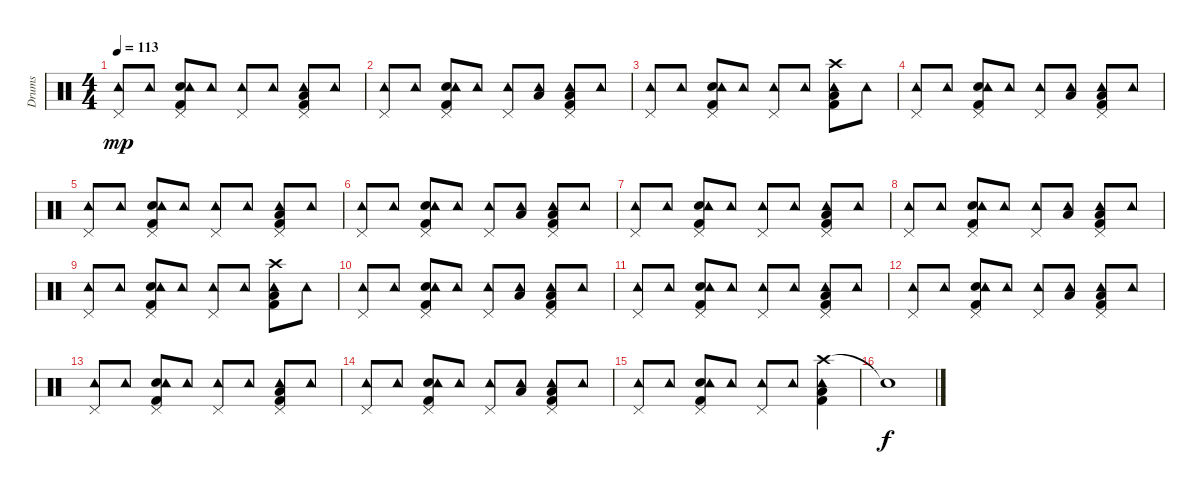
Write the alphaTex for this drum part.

\track ("Drums" "Drums") {instrument percussion}
\staff {score}
\articulation defaults
\ts (4 4)
\tempo 113
\clef neutral
\ks c
("Pedal Hi-Hat (hit)" "Tambourine (hit)").8{dy mp} "Tambourine (hit)".8 ("Pedal Hi-Hat (hit)" "Kick (hit) 2" "Electric Snare (hit)" "Tambourine (hit)").8 "Tambourine (hit)".8 ("Pedal Hi-Hat (hit)" "Tambourine (hit)").8 "Tambourine (hit)".8 ("Pedal Hi-Hat (hit)" "Kick (hit) 2" "Low Floor Tom (hit)" "Tambourine (hit)").8 "Tambourine (hit)".8 |
("Pedal Hi-Hat (hit)" "Tambourine (hit)").8 "Tambourine (hit)".8 ("Pedal Hi-Hat (hit)" "Kick (hit) 2" "Electric Snare (hit)" "Tambourine (hit)").8 "Tambourine (hit)".8 ("Pedal Hi-Hat (hit)" "Tambourine (hit)").8 ("Low Floor Tom (hit)" "Tambourine (hit)").8 ("Pedal Hi-Hat (hit)" "Kick (hit) 2" "Low Floor Tom (hit)" "Tambourine (hit)").8 "Tambourine (hit)".8 |
("Pedal Hi-Hat (hit)" "Tambourine (hit)").8 "Tambourine (hit)".8 ("Pedal Hi-Hat (hit)" "Kick (hit) 2" "Electric Snare (hit)" "Tambourine (hit)").8 "Tambourine (hit)".8 ("Pedal Hi-Hat (hit)" "Tambourine (hit)").8 "Tambourine (hit)".8 ("Crash high (hit)" "Kick (hit) 2" "Low Floor Tom (hit)" "Tambourine (hit)").8 "Tambourine (hit)".8 |
("Pedal Hi-Hat (hit)" "Tambourine (hit)").8 "Tambourine (hit)".8 ("Pedal Hi-Hat (hit)" "Kick (hit) 2" "Electric Snare (hit)" "Tambourine (hit)").8 "Tambourine (hit)".8 ("Pedal Hi-Hat (hit)" "Tambourine (hit)").8 ("Low Floor Tom (hit)" "Tambourine (hit)").8 ("Pedal Hi-Hat (hit)" "Kick (hit) 2" "Low Floor Tom (hit)" "Tambourine (hit)").8 "Tambourine (hit)".8 |
("Pedal Hi-Hat (hit)" "Tambourine (hit)").8 "Tambourine (hit)".8 ("Pedal Hi-Hat (hit)" "Kick (hit) 2" "Electric Snare (hit)" "Tambourine (hit)").8 "Tambourine (hit)".8 ("Pedal Hi-Hat (hit)" "Tambourine (hit)").8 "Tambourine (hit)".8 ("Pedal Hi-Hat (hit)" "Kick (hit) 2" "Low Floor Tom (hit)" "Tambourine (hit)").8 "Tambourine (hit)".8 |
("Pedal Hi-Hat (hit)" "Tambourine (hit)").8 "Tambourine (hit)".8 ("Pedal Hi-Hat (hit)" "Kick (hit) 2" "Electric Snare (hit)" "Tambourine (hit)").8 "Tambourine (hit)".8 ("Pedal Hi-Hat (hit)" "Tambourine (hit)").8 ("Low Floor Tom (hit)" "Tambourine (hit)").8 ("Pedal Hi-Hat (hit)" "Kick (hit) 2" "Low Floor Tom (hit)" "Tambourine (hit)").8 "Tambourine (hit)".8 |
("Pedal Hi-Hat (hit)" "Tambourine (hit)").8 "Tambourine (hit)".8 ("Pedal Hi-Hat (hit)" "Kick (hit) 2" "Electric Snare (hit)" "Tambourine (hit)").8 "Tambourine (hit)".8 ("Pedal Hi-Hat (hit)" "Tambourine (hit)").8 "Tambourine (hit)".8 ("Pedal Hi-Hat (hit)" "Kick (hit) 2" "Low Floor Tom (hit)" "Tambourine (hit)").8 "Tambourine (hit)".8 |
("Pedal Hi-Hat (hit)" "Tambourine (hit)").8 "Tambourine (hit)".8 ("Pedal Hi-Hat (hit)" "Kick (hit) 2" "Electric Snare (hit)" "Tambourine (hit)").8 "Tambourine (hit)".8 ("Pedal Hi-Hat (hit)" "Tambourine (hit)").8 ("Low Floor Tom (hit)" "Tambourine (hit)").8 ("Pedal Hi-Hat (hit)" "Kick (hit) 2" "Low Floor Tom (hit)" "Tambourine (hit)").8 "Tambourine (hit)".8 |
("Pedal Hi-Hat (hit)" "Tambourine (hit)").8 "Tambourine (hit)".8 ("Pedal Hi-Hat (hit)" "Kick (hit) 2" "Electric Snare (hit)" "Tambourine (hit)").8 "Tambourine (hit)".8 ("Pedal Hi-Hat (hit)" "Tambourine (hit)").8 "Tambourine (hit)".8 ("Crash high (hit)" "Kick (hit) 2" "Low Floor Tom (hit)" "Tambourine (hit)").8 "Tambourine (hit)".8 |
("Pedal Hi-Hat (hit)" "Tambourine (hit)").8 "Tambourine (hit)".8 ("Pedal Hi-Hat (hit)" "Kick (hit) 2" "Electric Snare (hit)" "Tambourine (hit)").8 "Tambourine (hit)".8 ("Pedal Hi-Hat (hit)" "Tambourine (hit)").8 ("Low Floor Tom (hit)" "Tambourine (hit)").8 ("Pedal Hi-Hat (hit)" "Kick (hit) 2" "Low Floor Tom (hit)" "Tambourine (hit)").8 "Tambourine (hit)".8 |
("Pedal Hi-Hat (hit)" "Tambourine (hit)").8 "Tambourine (hit)".8 ("Pedal Hi-Hat (hit)" "Kick (hit) 2" "Electric Snare (hit)" "Tambourine (hit)").8 "Tambourine (hit)".8 ("Pedal Hi-Hat (hit)" "Tambourine (hit)").8 "Tambourine (hit)".8 ("Pedal Hi-Hat (hit)" "Kick (hit) 2" "Low Floor Tom (hit)" "Tambourine (hit)").8 "Tambourine (hit)".8 |
("Pedal Hi-Hat (hit)" "Tambourine (hit)").8 "Tambourine (hit)".8 ("Pedal Hi-Hat (hit)" "Kick (hit) 2" "Electric Snare (hit)" "Tambourine (hit)").8 "Tambourine (hit)".8 ("Pedal Hi-Hat (hit)" "Tambourine (hit)").8 ("Low Floor Tom (hit)" "Tambourine (hit)").8 ("Pedal Hi-Hat (hit)" "Kick (hit) 2" "Low Floor Tom (hit)" "Tambourine (hit)").8 "Tambourine (hit)".8 |
("Pedal Hi-Hat (hit)" "Tambourine (hit)").8 "Tambourine (hit)".8 ("Pedal Hi-Hat (hit)" "Kick (hit) 2" "Electric Snare (hit)" "Tambourine (hit)").8 "Tambourine (hit)".8 ("Pedal Hi-Hat (hit)" "Tambourine (hit)").8 "Tambourine (hit)".8 ("Pedal Hi-Hat (hit)" "Kick (hit) 2" "Low Floor Tom (hit)" "Tambourine (hit)").8 "Tambourine (hit)".8 |
("Pedal Hi-Hat (hit)" "Tambourine (hit)").8 "Tambourine (hit)".8 ("Pedal Hi-Hat (hit)" "Kick (hit) 2" "Electric Snare (hit)" "Tambourine (hit)").8 "Tambourine (hit)".8 ("Pedal Hi-Hat (hit)" "Tambourine (hit)").8 ("Low Floor Tom (hit)" "Tambourine (hit)").8 ("Pedal Hi-Hat (hit)" "Kick (hit) 2" "Low Floor Tom (hit)" "Tambourine (hit)").8 "Tambourine (hit)".8 |
("Pedal Hi-Hat (hit)" "Tambourine (hit)").8 "Tambourine (hit)".8 ("Pedal Hi-Hat (hit)" "Kick (hit) 2" "Electric Snare (hit)" "Tambourine (hit)").8 "Tambourine (hit)".8 ("Pedal Hi-Hat (hit)" "Tambourine (hit)").8 "Tambourine (hit)".8 ("Crash high (hit)" "Kick (hit) 2" "Low Floor Tom (hit)" "Tambourine (hit)").4 |
"Snare (hit)"{t}.1{dy f}
